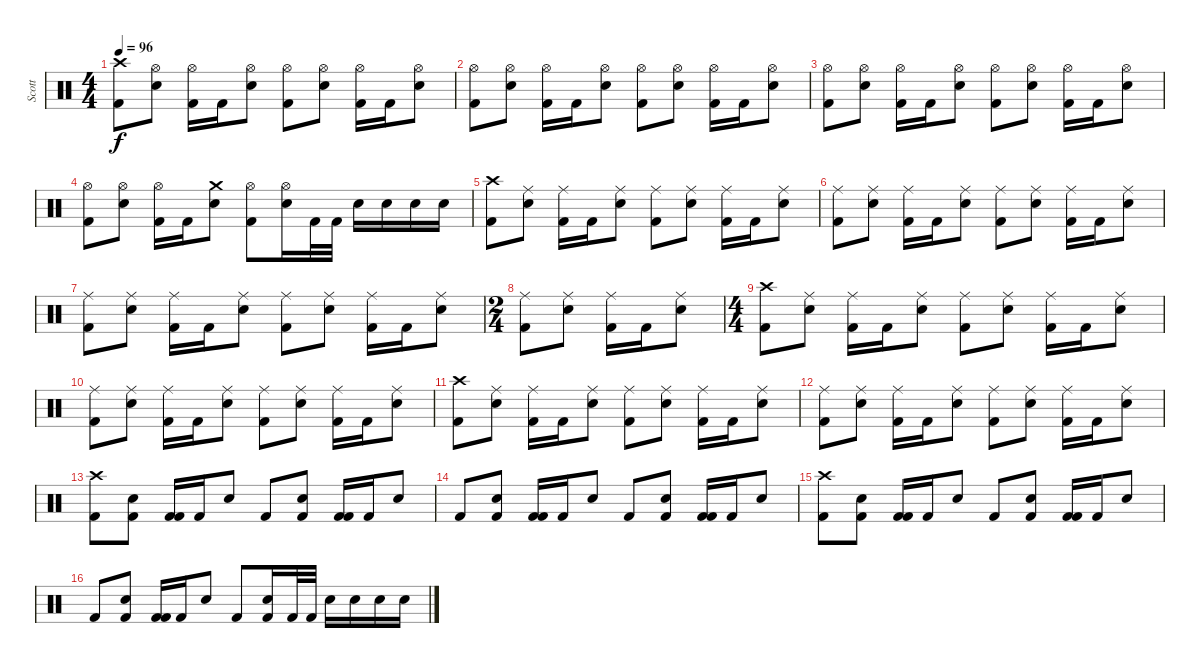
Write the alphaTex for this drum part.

\track ("Scott" "Scott") {instrument percussion}
\staff {score}
\articulation defaults
\ts (4 4)
\tempo 96
\clef neutral
\ks c
("Kick (hit) 2" "Crash high (hit)").8{dy f} ("Hi-Hat (open)" "Snare (hit) 2").8 ("Hi-Hat (open)" "Kick (hit) 2").16 "Kick (hit) 2".16 ("Snare (hit) 2" "Hi-Hat (open)").8 ("Kick (hit) 2" "Hi-Hat (open)").8 ("Hi-Hat (open)" "Snare (hit) 2").8 ("Hi-Hat (open)" "Kick (hit) 2").16 "Kick (hit) 2".16 ("Snare (hit) 2" "Hi-Hat (open)").8 |
("Kick (hit) 2" "Hi-Hat (open)").8 ("Hi-Hat (open)" "Snare (hit) 2").8 ("Hi-Hat (open)" "Kick (hit) 2").16 "Kick (hit) 2".16 ("Snare (hit) 2" "Hi-Hat (open)").8 ("Kick (hit) 2" "Hi-Hat (open)").8 ("Hi-Hat (open)" "Snare (hit) 2").8 ("Hi-Hat (open)" "Kick (hit) 2").16 "Kick (hit) 2".16 ("Snare (hit) 2" "Hi-Hat (open)").8 |
("Kick (hit) 2" "Hi-Hat (open)").8 ("Hi-Hat (open)" "Snare (hit) 2").8 ("Hi-Hat (open)" "Kick (hit) 2").16 "Kick (hit) 2".16 ("Snare (hit) 2" "Hi-Hat (open)").8 ("Kick (hit) 2" "Hi-Hat (open)").8 ("Hi-Hat (open)" "Snare (hit) 2").8 ("Hi-Hat (open)" "Kick (hit) 2").16 "Kick (hit) 2".16 ("Snare (hit) 2" "Hi-Hat (open)").8 |
("Kick (hit) 2" "Hi-Hat (open)").8 ("Hi-Hat (open)" "Snare (hit) 2").8 ("Hi-Hat (open)" "Kick (hit) 2").16 "Kick (hit) 2".16 ("Snare (hit) 2" "Crash medium (hit)").8 ("Kick (hit) 2" "Hi-Hat (open)").8 ("Hi-Hat (open)" "Snare (hit) 2").16 "Kick (hit) 2".32 "Kick (hit) 2".32 "Snare (hit) 2".16 "Snare (hit) 2".16 "Snare (hit) 2".16 "Snare (hit) 2".16 |
("Kick (hit) 2" "Crash high (hit)").8 ("Ride (middle)" "Snare (hit) 2").8 ("Ride (middle)" "Kick (hit) 2").16 "Kick (hit) 2".16 ("Snare (hit) 2" "Ride (middle)").8 ("Kick (hit) 2" "Ride (middle)").8 ("Ride (middle)" "Snare (hit) 2").8 ("Ride (middle)" "Kick (hit) 2").16 "Kick (hit) 2".16 ("Snare (hit) 2" "Ride (middle)").8 |
("Kick (hit) 2" "Ride (middle)").8 ("Ride (middle)" "Snare (hit) 2").8 ("Ride (middle)" "Kick (hit) 2").16 "Kick (hit) 2".16 ("Snare (hit) 2" "Ride (middle)").8 ("Kick (hit) 2" "Ride (middle)").8 ("Ride (middle)" "Snare (hit) 2").8 ("Ride (middle)" "Kick (hit) 2").16 "Kick (hit) 2".16 ("Snare (hit) 2" "Ride (middle)").8 |
("Kick (hit) 2" "Ride (middle)").8 ("Ride (middle)" "Snare (hit) 2").8 ("Ride (middle)" "Kick (hit) 2").16 "Kick (hit) 2".16 ("Snare (hit) 2" "Ride (middle)").8 ("Kick (hit) 2" "Ride (middle)").8 ("Ride (middle)" "Snare (hit) 2").8 ("Ride (middle)" "Kick (hit) 2").16 "Kick (hit) 2".16 ("Snare (hit) 2" "Ride (middle)").8 |
\ts (2 4)
("Kick (hit) 2" "Ride (middle)").8 ("Ride (middle)" "Snare (hit) 2").8 ("Ride (middle)" "Kick (hit) 2").16 "Kick (hit) 2".16 ("Snare (hit) 2" "Ride (middle)").8 |
\ts (4 4)
("Kick (hit) 2" "Crash high (hit)").8 ("Ride (middle)" "Snare (hit) 2").8 ("Ride (middle)" "Kick (hit) 2").16 "Kick (hit) 2".16 ("Snare (hit) 2" "Ride (middle)").8 ("Kick (hit) 2" "Ride (middle)").8 ("Ride (middle)" "Snare (hit) 2").8 ("Ride (middle)" "Kick (hit) 2").16 "Kick (hit) 2".16 ("Snare (hit) 2" "Ride (middle)").8 |
("Kick (hit) 2" "Ride (middle)").8 ("Ride (middle)" "Snare (hit) 2").8 ("Ride (middle)" "Kick (hit) 2").16 "Kick (hit) 2".16 ("Snare (hit) 2" "Ride (middle)").8 ("Kick (hit) 2" "Ride (middle)").8 ("Ride (middle)" "Snare (hit) 2").8 ("Ride (middle)" "Kick (hit) 2").16 "Kick (hit) 2".16 ("Snare (hit) 2" "Ride (middle)").8 |
("Kick (hit) 2" "Crash high (hit)").8 ("Ride (middle)" "Snare (hit) 2").8 ("Ride (middle)" "Kick (hit) 2").16 "Kick (hit) 2".16 ("Snare (hit) 2" "Ride (middle)").8 ("Kick (hit) 2" "Ride (middle)").8 ("Ride (middle)" "Snare (hit) 2").8 ("Ride (middle)" "Kick (hit) 2").16 "Kick (hit) 2".16 ("Snare (hit) 2" "Ride (middle)").8 |
("Kick (hit) 2" "Ride (middle)").8 ("Ride (middle)" "Snare (hit) 2").8 ("Ride (middle)" "Kick (hit) 2").16 "Kick (hit) 2".16 ("Snare (hit) 2" "Ride (middle)").8 ("Kick (hit) 2" "Ride (middle)").8 ("Ride (middle)" "Snare (hit) 2").8 ("Ride (middle)" "Kick (hit) 2").16 "Kick (hit) 2".16 ("Snare (hit) 2" "Ride (middle)").8 |
("Kick (hit) 2" "Crash high (hit)").8 ("Kick (hit) 2" "Snare (hit) 2").8 ("Kick (hit) 2" "Kick (hit) 2").16 "Kick (hit) 2".16 "Snare (hit) 2".8 "Kick (hit) 2".8 ("Kick (hit) 2" "Snare (hit) 2").8 ("Kick (hit) 2" "Kick (hit) 2").16 "Kick (hit) 2".16 "Snare (hit) 2".8 |
"Kick (hit) 2".8 ("Kick (hit) 2" "Snare (hit) 2").8 ("Kick (hit) 2" "Kick (hit) 2").16 "Kick (hit) 2".16 "Snare (hit) 2".8 "Kick (hit) 2".8 ("Kick (hit) 2" "Snare (hit) 2").8 ("Kick (hit) 2" "Kick (hit) 2").16 "Kick (hit) 2".16 "Snare (hit) 2".8 |
("Kick (hit) 2" "Crash high (hit)").8 ("Kick (hit) 2" "Snare (hit) 2").8 ("Kick (hit) 2" "Kick (hit) 2").16 "Kick (hit) 2".16 "Snare (hit) 2".8 "Kick (hit) 2".8 ("Kick (hit) 2" "Snare (hit) 2").8 ("Kick (hit) 2" "Kick (hit) 2").16 "Kick (hit) 2".16 "Snare (hit) 2".8 |
"Kick (hit) 2".8 ("Kick (hit) 2" "Snare (hit) 2").8 ("Kick (hit) 2" "Kick (hit) 2").16 "Kick (hit) 2".16 "Snare (hit) 2".8 "Kick (hit) 2".8 ("Kick (hit) 2" "Snare (hit) 2").16 "Kick (hit) 2".32 "Kick (hit) 2".32 "Snare (hit) 2".16 "Snare (hit) 2".16 "Snare (hit) 2".16 "Snare (hit) 2".16
